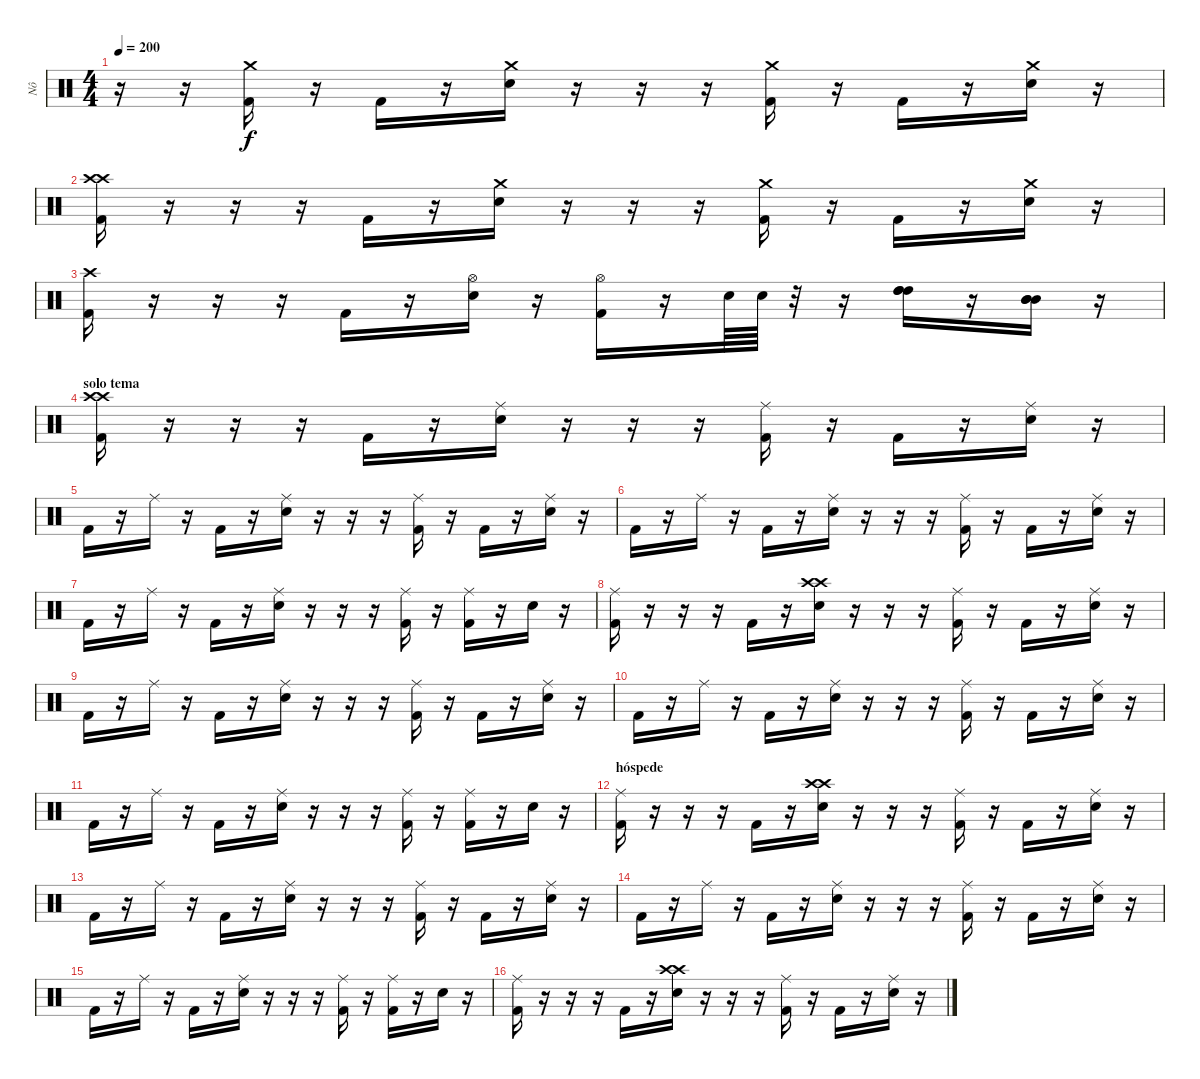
\track ("Nô" "Nô") {instrument percussion}
\staff {score}
\articulation defaults
\ts (4 4)
\tempo 200
\clef neutral
\ks c
r.16{dy f} r.16 ("Crash medium (hit)" "Kick (hit) 2").16 r.16 "Kick (hit) 2".16 r.16 ("Crash medium (hit)" "Electric Snare (hit)").16 r.16 r.16 r.16 ("Crash medium (hit)" "Kick (hit) 2").16 r.16 "Kick (hit) 2".16 r.16 ("Crash medium (hit)" "Electric Snare (hit)").16 r.16 |
("Crash high (hit)" "Crash high (hit)" "Kick (hit) 2").16 r.16 r.16 r.16 "Kick (hit) 2".16 r.16 ("Crash medium (hit)" "Electric Snare (hit)").16 r.16 r.16 r.16 ("Crash medium (hit)" "Kick (hit) 2").16 r.16 "Kick (hit) 2".16 r.16 ("Crash medium (hit)" "Electric Snare (hit)").16 r.16 |
("Crash high (hit)" "Kick (hit) 2").16 r.16 r.16 r.16 "Kick (hit) 2".16 r.16 ("Hi-Hat (open)" "Electric Snare (hit)").16 r.16 ("Hi-Hat (open)" "Kick (hit) 2").16 r.16 "Electric Snare (hit)".64 "Electric Snare (hit)".64 r.32 r.16 ("High Tom (hit)" "High Tom (hit)" "High Tom (hit)").16 r.16 ("Mid Tom (hit)" "Mid Tom (hit)" "Mid Tom (hit)").16 r.16 |
\section ("" "solo tema")
("Crash high (hit)" "Crash high (hit)" "Kick (hit) 2").16 r.16 r.16 r.16 "Kick (hit) 2".16 r.16 ("Ride (middle)" "Electric Snare (hit)").16 r.16 r.16 r.16 ("Ride (middle)" "Kick (hit) 2").16 r.16 "Kick (hit) 2".16 r.16 ("Ride (middle)" "Electric Snare (hit)").16 r.16 |
"Kick (hit) 2".16 r.16 "Ride (middle)".16 r.16 "Kick (hit) 2".16 r.16 ("Ride (middle)" "Electric Snare (hit)").16 r.16 r.16 r.16 ("Ride (middle)" "Kick (hit) 2").16 r.16 "Kick (hit) 2".16 r.16 ("Ride (middle)" "Electric Snare (hit)").16 r.16 |
"Kick (hit) 2".16 r.16 "Ride (middle)".16 r.16 "Kick (hit) 2".16 r.16 ("Ride (middle)" "Electric Snare (hit)").16 r.16 r.16 r.16 ("Ride (middle)" "Kick (hit) 2").16 r.16 "Kick (hit) 2".16 r.16 ("Ride (middle)" "Electric Snare (hit)").16 r.16 |
"Kick (hit) 2".16 r.16 "Ride (middle)".16 r.16 "Kick (hit) 2".16 r.16 ("Ride (middle)" "Electric Snare (hit)").16 r.16 r.16 r.16 ("Ride (middle)" "Kick (hit) 2").16 r.16 ("Ride (middle)" "Kick (hit) 2").16 r.16 "Electric Snare (hit)".16 r.16 |
("Ride (middle)" "Kick (hit) 2").16 r.16 r.16 r.16 "Kick (hit) 2".16 r.16 ("Crash high (hit)" "Crash high (hit)" "Electric Snare (hit)").16 r.16 r.16 r.16 ("Ride (middle)" "Kick (hit) 2").16 r.16 "Kick (hit) 2".16 r.16 ("Ride (middle)" "Electric Snare (hit)").16 r.16 |
"Kick (hit) 2".16 r.16 "Ride (middle)".16 r.16 "Kick (hit) 2".16 r.16 ("Ride (middle)" "Electric Snare (hit)").16 r.16 r.16 r.16 ("Ride (middle)" "Kick (hit) 2").16 r.16 "Kick (hit) 2".16 r.16 ("Ride (middle)" "Electric Snare (hit)").16 r.16 |
"Kick (hit) 2".16 r.16 "Ride (middle)".16 r.16 "Kick (hit) 2".16 r.16 ("Ride (middle)" "Electric Snare (hit)").16 r.16 r.16 r.16 ("Ride (middle)" "Kick (hit) 2").16 r.16 "Kick (hit) 2".16 r.16 ("Ride (middle)" "Electric Snare (hit)").16 r.16 |
"Kick (hit) 2".16 r.16 "Ride (middle)".16 r.16 "Kick (hit) 2".16 r.16 ("Ride (middle)" "Electric Snare (hit)").16 r.16 r.16 r.16 ("Ride (middle)" "Kick (hit) 2").16 r.16 ("Ride (middle)" "Kick (hit) 2").16 r.16 "Electric Snare (hit)".16 r.16 |
\section ("" "hóspede")
("Ride (middle)" "Kick (hit) 2").16 r.16 r.16 r.16 "Kick (hit) 2".16 r.16 ("Crash high (hit)" "Crash high (hit)" "Electric Snare (hit)").16 r.16 r.16 r.16 ("Ride (middle)" "Kick (hit) 2").16 r.16 "Kick (hit) 2".16 r.16 ("Ride (middle)" "Electric Snare (hit)").16 r.16 |
"Kick (hit) 2".16 r.16 "Ride (middle)".16 r.16 "Kick (hit) 2".16 r.16 ("Ride (middle)" "Electric Snare (hit)").16 r.16 r.16 r.16 ("Ride (middle)" "Kick (hit) 2").16 r.16 "Kick (hit) 2".16 r.16 ("Ride (middle)" "Electric Snare (hit)").16 r.16 |
"Kick (hit) 2".16 r.16 "Ride (middle)".16 r.16 "Kick (hit) 2".16 r.16 ("Ride (middle)" "Electric Snare (hit)").16 r.16 r.16 r.16 ("Ride (middle)" "Kick (hit) 2").16 r.16 "Kick (hit) 2".16 r.16 ("Ride (middle)" "Electric Snare (hit)").16 r.16 |
"Kick (hit) 2".16 r.16 "Ride (middle)".16 r.16 "Kick (hit) 2".16 r.16 ("Ride (middle)" "Electric Snare (hit)").16 r.16 r.16 r.16 ("Ride (middle)" "Kick (hit) 2").16 r.16 ("Ride (middle)" "Kick (hit) 2").16 r.16 "Electric Snare (hit)".16 r.16 |
("Ride (middle)" "Kick (hit) 2").16 r.16 r.16 r.16 "Kick (hit) 2".16 r.16 ("Crash high (hit)" "Crash high (hit)" "Electric Snare (hit)").16 r.16 r.16 r.16 ("Ride (middle)" "Kick (hit) 2").16 r.16 "Kick (hit) 2".16 r.16 ("Ride (middle)" "Electric Snare (hit)").16 r.16
